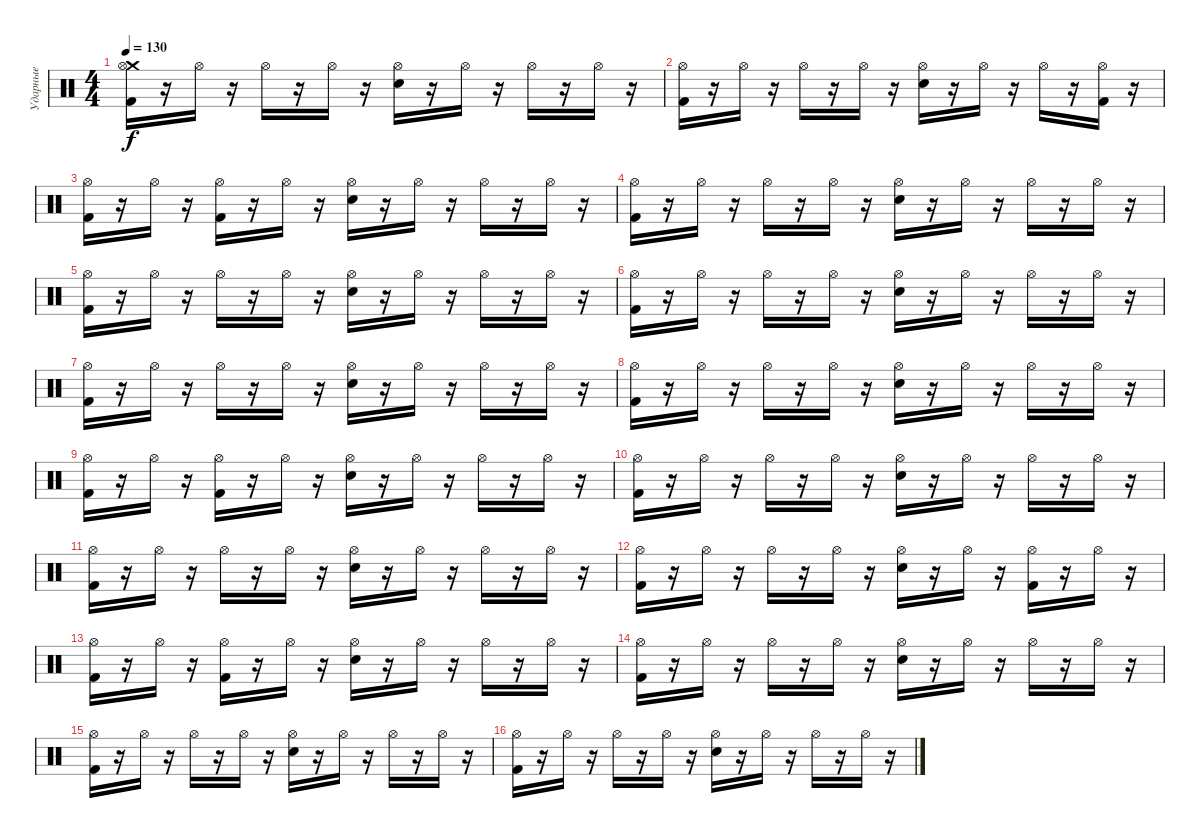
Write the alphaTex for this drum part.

\track ("Ударные" "Ударные") {instrument percussion}
\staff {score}
\articulation defaults
\ts (4 4)
\tempo 130
\clef neutral
\ks c
("Crash medium (hit)" "Hi-Hat (open)" "Kick (hit) 2").16{dy f} r.16 "Hi-Hat (open)".16 r.16 "Hi-Hat (open)".16 r.16 "Hi-Hat (open)".16 r.16 ("Hi-Hat (open)" "Snare (hit) 2").16 r.16 "Hi-Hat (open)".16 r.16 "Hi-Hat (open)".16 r.16 "Hi-Hat (open)".16 r.16 |
("Hi-Hat (open)" "Kick (hit) 2").16 r.16 "Hi-Hat (open)".16 r.16 "Hi-Hat (open)".16 r.16 "Hi-Hat (open)".16 r.16 ("Hi-Hat (open)" "Snare (hit) 2").16 r.16 "Hi-Hat (open)".16 r.16 "Hi-Hat (open)".16 r.16 ("Hi-Hat (open)" "Kick (hit) 2").16 r.16 |
("Hi-Hat (open)" "Kick (hit) 2").16 r.16 "Hi-Hat (open)".16 r.16 ("Hi-Hat (open)" "Kick (hit) 2").16 r.16 "Hi-Hat (open)".16 r.16 ("Hi-Hat (open)" "Snare (hit) 2").16 r.16 "Hi-Hat (open)".16 r.16 "Hi-Hat (open)".16 r.16 "Hi-Hat (open)".16 r.16 |
("Hi-Hat (open)" "Kick (hit) 2").16 r.16 "Hi-Hat (open)".16 r.16 "Hi-Hat (open)".16 r.16 "Hi-Hat (open)".16 r.16 ("Hi-Hat (open)" "Snare (hit) 2").16 r.16 "Hi-Hat (open)".16 r.16 "Hi-Hat (open)".16 r.16 "Hi-Hat (open)".16 r.16 |
("Hi-Hat (open)" "Kick (hit) 2").16 r.16 "Hi-Hat (open)".16 r.16 "Hi-Hat (open)".16 r.16 "Hi-Hat (open)".16 r.16 ("Hi-Hat (open)" "Snare (hit) 2").16 r.16 "Hi-Hat (open)".16 r.16 "Hi-Hat (open)".16 r.16 "Hi-Hat (open)".16 r.16 |
("Hi-Hat (open)" "Kick (hit) 2").16 r.16 "Hi-Hat (open)".16 r.16 "Hi-Hat (open)".16 r.16 "Hi-Hat (open)".16 r.16 ("Hi-Hat (open)" "Snare (hit) 2").16 r.16 "Hi-Hat (open)".16 r.16 "Hi-Hat (open)".16 r.16 "Hi-Hat (open)".16 r.16 |
("Hi-Hat (open)" "Kick (hit) 2").16 r.16 "Hi-Hat (open)".16 r.16 "Hi-Hat (open)".16 r.16 "Hi-Hat (open)".16 r.16 ("Hi-Hat (open)" "Snare (hit) 2").16 r.16 "Hi-Hat (open)".16 r.16 "Hi-Hat (open)".16 r.16 "Hi-Hat (open)".16 r.16 |
("Hi-Hat (open)" "Kick (hit) 2").16 r.16 "Hi-Hat (open)".16 r.16 "Hi-Hat (open)".16 r.16 "Hi-Hat (open)".16 r.16 ("Hi-Hat (open)" "Snare (hit) 2").16 r.16 "Hi-Hat (open)".16 r.16 "Hi-Hat (open)".16 r.16 "Hi-Hat (open)".16 r.16 |
("Hi-Hat (open)" "Kick (hit) 2").16 r.16 "Hi-Hat (open)".16 r.16 ("Hi-Hat (open)" "Kick (hit) 2").16 r.16 "Hi-Hat (open)".16 r.16 ("Hi-Hat (open)" "Snare (hit) 2").16 r.16 "Hi-Hat (open)".16 r.16 "Hi-Hat (open)".16 r.16 "Hi-Hat (open)".16 r.16 |
("Hi-Hat (open)" "Kick (hit) 2").16 r.16 "Hi-Hat (open)".16 r.16 "Hi-Hat (open)".16 r.16 "Hi-Hat (open)".16 r.16 ("Hi-Hat (open)" "Snare (hit) 2").16 r.16 "Hi-Hat (open)".16 r.16 "Hi-Hat (open)".16 r.16 "Hi-Hat (open)".16 r.16 |
("Hi-Hat (open)" "Kick (hit) 2").16 r.16 "Hi-Hat (open)".16 r.16 "Hi-Hat (open)".16 r.16 "Hi-Hat (open)".16 r.16 ("Hi-Hat (open)" "Snare (hit) 2").16 r.16 "Hi-Hat (open)".16 r.16 "Hi-Hat (open)".16 r.16 "Hi-Hat (open)".16 r.16 |
("Hi-Hat (open)" "Kick (hit) 2").16 r.16 "Hi-Hat (open)".16 r.16 "Hi-Hat (open)".16 r.16 "Hi-Hat (open)".16 r.16 ("Hi-Hat (open)" "Snare (hit) 2").16 r.16 "Hi-Hat (open)".16 r.16 ("Hi-Hat (open)" "Kick (hit) 2").16 r.16 "Hi-Hat (open)".16 r.16 |
("Hi-Hat (open)" "Kick (hit) 2").16 r.16 "Hi-Hat (open)".16 r.16 ("Hi-Hat (open)" "Kick (hit) 2").16 r.16 "Hi-Hat (open)".16 r.16 ("Hi-Hat (open)" "Snare (hit) 2").16 r.16 "Hi-Hat (open)".16 r.16 "Hi-Hat (open)".16 r.16 "Hi-Hat (open)".16 r.16 |
("Hi-Hat (open)" "Kick (hit) 2").16 r.16 "Hi-Hat (open)".16 r.16 "Hi-Hat (open)".16 r.16 "Hi-Hat (open)".16 r.16 ("Hi-Hat (open)" "Snare (hit) 2").16 r.16 "Hi-Hat (open)".16 r.16 "Hi-Hat (open)".16 r.16 "Hi-Hat (open)".16 r.16 |
("Hi-Hat (open)" "Kick (hit) 2").16 r.16 "Hi-Hat (open)".16 r.16 "Hi-Hat (open)".16 r.16 "Hi-Hat (open)".16 r.16 ("Hi-Hat (open)" "Snare (hit) 2").16 r.16 "Hi-Hat (open)".16 r.16 "Hi-Hat (open)".16 r.16 "Hi-Hat (open)".16 r.16 |
("Hi-Hat (open)" "Kick (hit) 2").16 r.16 "Hi-Hat (open)".16 r.16 "Hi-Hat (open)".16 r.16 "Hi-Hat (open)".16 r.16 ("Hi-Hat (open)" "Snare (hit) 2").16 r.16 "Hi-Hat (open)".16 r.16 "Hi-Hat (open)".16 r.16 "Hi-Hat (open)".16 r.16
